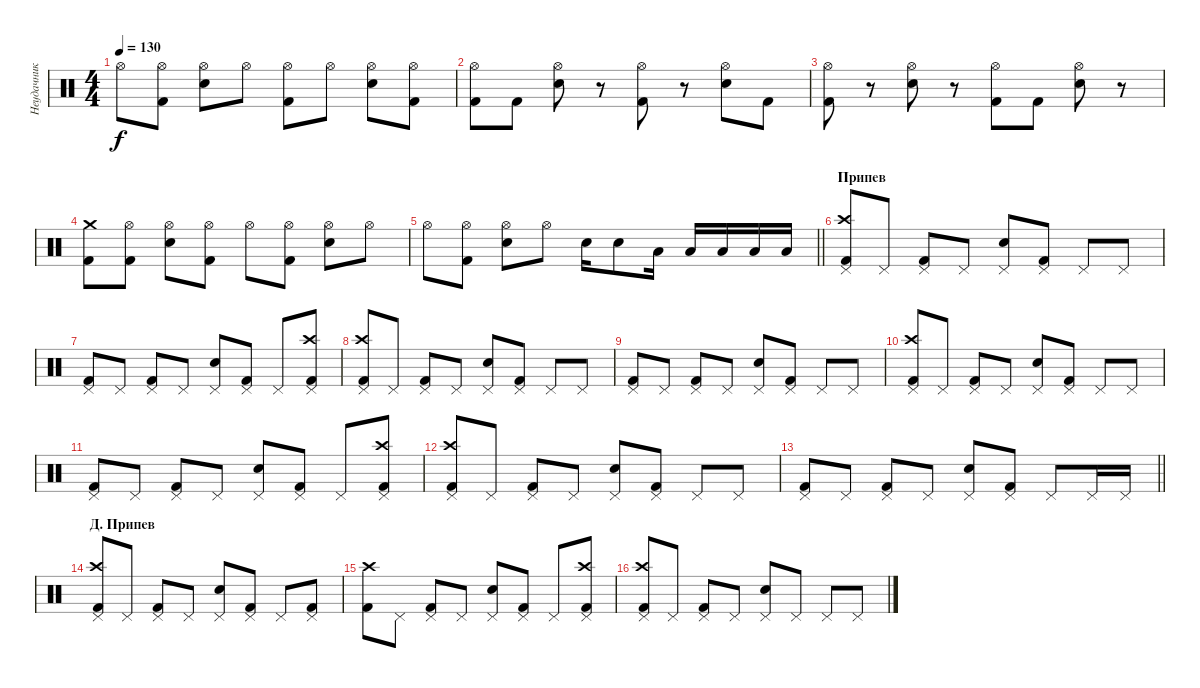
\track ("Неудачник" "Неудачник") {instrument percussion}
\staff {score}
\articulation defaults
\ts (4 4)
\tempo 130
\clef neutral
\ks c "Hi-Hat (open)".8{dy f}
("Hi-Hat (open)" "Kick (hit) 2").8 ("Hi-Hat (open)" "Electric Snare (hit)").8 "Hi-Hat (open)".8 ("Hi-Hat (open)" "Kick (hit) 2").8 "Hi-Hat (open)".8 ("Hi-Hat (open)" "Electric Snare (hit)").8 ("Hi-Hat (open)" "Kick (hit) 2").8 |
("Hi-Hat (open)" "Kick (hit) 2").8 "Kick (hit) 2".8 ("Hi-Hat (open)" "Electric Snare (hit)").8 r.8 ("Hi-Hat (open)" "Kick (hit) 2").8 r.8 ("Hi-Hat (open)" "Electric Snare (hit)").8 "Kick (hit) 2".8 |
("Hi-Hat (open)" "Kick (hit) 2").8 r.8 ("Hi-Hat (open)" "Electric Snare (hit)").8 r.8 ("Hi-Hat (open)" "Kick (hit) 2").8 "Kick (hit) 2".8 ("Hi-Hat (open)" "Electric Snare (hit)").8 r.8 |
("Crash medium (hit)" "Kick (hit) 2").8 ("Hi-Hat (open)" "Kick (hit) 2").8 ("Hi-Hat (open)" "Electric Snare (hit)").8 ("Hi-Hat (open)" "Kick (hit) 2").8 "Hi-Hat (open)".8 ("Hi-Hat (open)" "Kick (hit) 2").8 ("Hi-Hat (open)" "Electric Snare (hit)").8 "Hi-Hat (open)".8 |
\barLineRight lightlight "Hi-Hat (open)".8
("Hi-Hat (open)" "Kick (hit) 2").8 ("Hi-Hat (open)" "Electric Snare (hit)").8 "Hi-Hat (open)".8 "Electric Snare (hit)".16 "Electric Snare (hit)".8 "Low Floor Tom (hit)".16 "Low Floor Tom (hit)".16 "Low Tom (hit)".16 "Low Tom (hit)".16 "Low Tom (hit)".16 |
\section ("" "Припев")
("Crash high (hit)" "Pedal Hi-Hat (hit)" "Kick (hit) 2").8 "Pedal Hi-Hat (hit)".8 ("Pedal Hi-Hat (hit)" "Kick (hit) 2").8 "Pedal Hi-Hat (hit)".8 ("Pedal Hi-Hat (hit)" "Electric Snare (hit)").8 ("Pedal Hi-Hat (hit)" "Kick (hit) 2").8 "Pedal Hi-Hat (hit)".8 "Pedal Hi-Hat (hit)".8 |
("Pedal Hi-Hat (hit)" "Kick (hit) 2").8 "Pedal Hi-Hat (hit)".8 ("Pedal Hi-Hat (hit)" "Kick (hit) 2").8 "Pedal Hi-Hat (hit)".8 ("Pedal Hi-Hat (hit)" "Electric Snare (hit)").8 ("Pedal Hi-Hat (hit)" "Kick (hit) 2").8 "Pedal Hi-Hat (hit)".8 ("Crash high (hit)" "Pedal Hi-Hat (hit)" "Kick (hit) 2").8 |
("Crash high (hit)" "Pedal Hi-Hat (hit)" "Kick (hit) 2").8 "Pedal Hi-Hat (hit)".8 ("Pedal Hi-Hat (hit)" "Kick (hit) 2").8 "Pedal Hi-Hat (hit)".8 ("Pedal Hi-Hat (hit)" "Electric Snare (hit)").8 ("Pedal Hi-Hat (hit)" "Kick (hit) 2").8 "Pedal Hi-Hat (hit)".8 "Pedal Hi-Hat (hit)".8 |
("Pedal Hi-Hat (hit)" "Kick (hit) 2").8 "Pedal Hi-Hat (hit)".8 ("Pedal Hi-Hat (hit)" "Kick (hit) 2").8 "Pedal Hi-Hat (hit)".8 ("Pedal Hi-Hat (hit)" "Electric Snare (hit)").8 ("Pedal Hi-Hat (hit)" "Kick (hit) 2").8 "Pedal Hi-Hat (hit)".8 "Pedal Hi-Hat (hit)".8 |
("Crash high (hit)" "Pedal Hi-Hat (hit)" "Kick (hit) 2").8 "Pedal Hi-Hat (hit)".8 ("Pedal Hi-Hat (hit)" "Kick (hit) 2").8 "Pedal Hi-Hat (hit)".8 ("Pedal Hi-Hat (hit)" "Electric Snare (hit)").8 ("Pedal Hi-Hat (hit)" "Kick (hit) 2").8 "Pedal Hi-Hat (hit)".8 "Pedal Hi-Hat (hit)".8 |
("Pedal Hi-Hat (hit)" "Kick (hit) 2").8 "Pedal Hi-Hat (hit)".8 ("Pedal Hi-Hat (hit)" "Kick (hit) 2").8 "Pedal Hi-Hat (hit)".8 ("Pedal Hi-Hat (hit)" "Electric Snare (hit)").8 ("Pedal Hi-Hat (hit)" "Kick (hit) 2").8 "Pedal Hi-Hat (hit)".8 ("Crash high (hit)" "Pedal Hi-Hat (hit)" "Kick (hit) 2").8 |
("Crash high (hit)" "Pedal Hi-Hat (hit)" "Kick (hit) 2").8 "Pedal Hi-Hat (hit)".8 ("Pedal Hi-Hat (hit)" "Kick (hit) 2").8 "Pedal Hi-Hat (hit)".8 ("Pedal Hi-Hat (hit)" "Electric Snare (hit)").8 ("Pedal Hi-Hat (hit)" "Kick (hit) 2").8 "Pedal Hi-Hat (hit)".8 "Pedal Hi-Hat (hit)".8 |
\barLineRight lightlight
("Pedal Hi-Hat (hit)" "Kick (hit) 2").8 "Pedal Hi-Hat (hit)".8 ("Pedal Hi-Hat (hit)" "Kick (hit) 2").8 "Pedal Hi-Hat (hit)".8 ("Pedal Hi-Hat (hit)" "Electric Snare (hit)").8 ("Pedal Hi-Hat (hit)" "Kick (hit) 2").8 "Pedal Hi-Hat (hit)".8 "Pedal Hi-Hat (hit)".16 "Pedal Hi-Hat (hit)".16 |
\section ("" "Д. Припев")
("Crash high (hit)" "Pedal Hi-Hat (hit)" "Kick (hit) 2").8 "Pedal Hi-Hat (hit)".8 ("Pedal Hi-Hat (hit)" "Kick (hit) 2").8 "Pedal Hi-Hat (hit)".8 ("Pedal Hi-Hat (hit)" "Electric Snare (hit)").8 ("Pedal Hi-Hat (hit)" "Kick (hit) 2").8 "Pedal Hi-Hat (hit)".8 ("Pedal Hi-Hat (hit)" "Kick (hit) 2").8 |
("Crash high (hit)" "Kick (hit) 2").8 "Pedal Hi-Hat (hit)".8 ("Pedal Hi-Hat (hit)" "Kick (hit) 2").8 "Pedal Hi-Hat (hit)".8 ("Pedal Hi-Hat (hit)" "Electric Snare (hit)").8 ("Pedal Hi-Hat (hit)" "Kick (hit) 2").8 "Pedal Hi-Hat (hit)".8 ("Crash high (hit)" "Pedal Hi-Hat (hit)" "Kick (hit) 2").8 |
("Crash high (hit)" "Pedal Hi-Hat (hit)" "Kick (hit) 2").8 "Pedal Hi-Hat (hit)".8 ("Pedal Hi-Hat (hit)" "Kick (hit) 2").8 "Pedal Hi-Hat (hit)".8 ("Pedal Hi-Hat (hit)" "Electric Snare (hit)").8 "Pedal Hi-Hat (hit)".8 "Pedal Hi-Hat (hit)".8 "Pedal Hi-Hat (hit)".8
